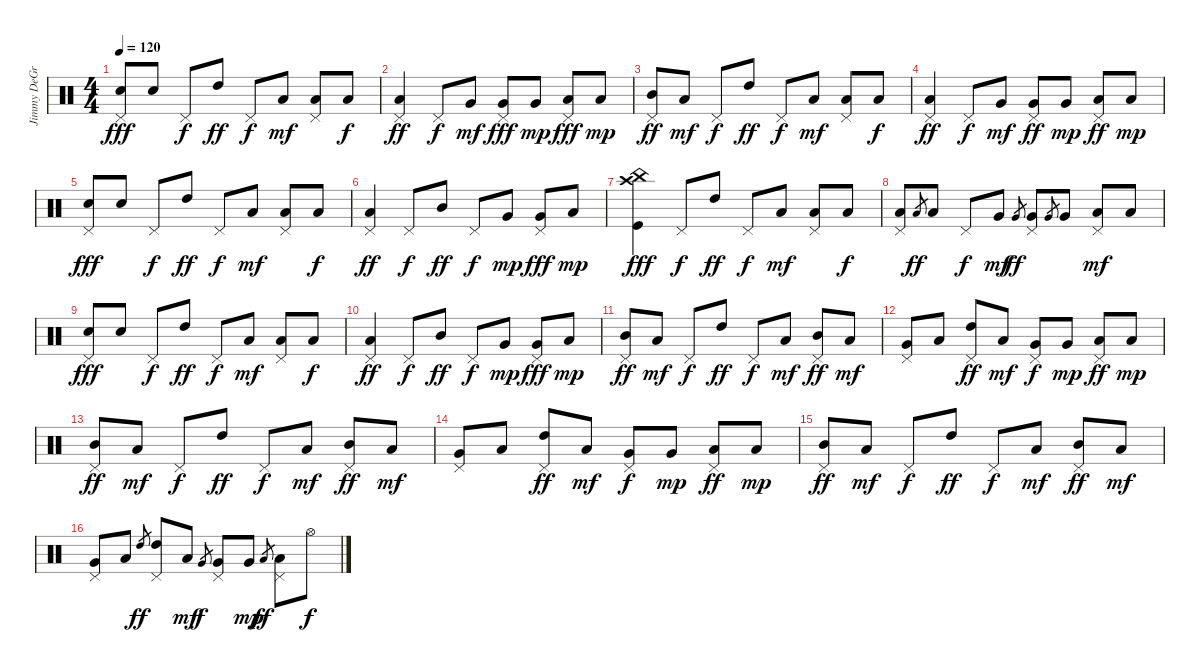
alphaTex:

\track ("Jimmy DeGrasso" "Jimmy DeGr") {instrument percussion}
\staff {score}
\articulation defaults
\ts (4 4)
\tempo 120
\clef neutral
\ks c
("Electric Snare (hit)" "Pedal Hi-Hat (hit)").8{dy fff} "Electric Snare (hit)".8 "Pedal Hi-Hat (hit)".8{dy f} "High Tom (hit)".8{dy ff} "Pedal Hi-Hat (hit)".8{dy f} "Low Floor Tom (hit)".8{dy mf} ("Low Floor Tom (hit)" "Pedal Hi-Hat (hit)").8 "Low Floor Tom (hit)".8{dy f} |
("Low Floor Tom (hit)" "Pedal Hi-Hat (hit)").4{dy ff} "Pedal Hi-Hat (hit)".8{dy f} "Very Low Tom (hit)".8{dy mf} ("Very Low Tom (hit)" "Pedal Hi-Hat (hit)").8{dy fff} "Very Low Tom (hit)".8{dy mp} ("Low Floor Tom (hit)" "Pedal Hi-Hat (hit)").8{dy fff} "Low Floor Tom (hit)".8{dy mp} |
("Mid Tom (hit)" "Pedal Hi-Hat (hit)").8{dy ff} "Low Floor Tom (hit)".8{dy mf} "Pedal Hi-Hat (hit)".8{dy f} "High Tom (hit)".8{dy ff} "Pedal Hi-Hat (hit)".8{dy f} "Low Floor Tom (hit)".8{dy mf} ("Low Floor Tom (hit)" "Pedal Hi-Hat (hit)").8 "Low Floor Tom (hit)".8{dy f} |
("Low Floor Tom (hit)" "Pedal Hi-Hat (hit)").4{dy ff} "Pedal Hi-Hat (hit)".8{dy f} "Very Low Tom (hit)".8{dy mf} ("Very Low Tom (hit)" "Pedal Hi-Hat (hit)").8{dy ff} "Very Low Tom (hit)".8{dy mp} ("Low Floor Tom (hit)" "Pedal Hi-Hat (hit)").8{dy ff} "Low Floor Tom (hit)".8{dy mp} |
("Electric Snare (hit)" "Pedal Hi-Hat (hit)").8{dy fff} "Electric Snare (hit)".8 "Pedal Hi-Hat (hit)".8{dy f} "High Tom (hit)".8{dy ff} "Pedal Hi-Hat (hit)".8{dy f} "Low Floor Tom (hit)".8{dy mf} ("Low Floor Tom (hit)" "Pedal Hi-Hat (hit)").8 "Low Floor Tom (hit)".8{dy f} |
("Low Floor Tom (hit)" "Pedal Hi-Hat (hit)").4{dy ff} "Pedal Hi-Hat (hit)".8{dy f} "Mid Tom (hit)".8{dy ff} "Pedal Hi-Hat (hit)".8{dy f} "Very Low Tom (hit)".8{dy mp} ("Very Low Tom (hit)" "Pedal Hi-Hat (hit)").8{dy fff} "Low Floor Tom (hit)".8{dy mp} |
("Kick (hit)" "China (hit)" "Crash high (hit)").4{dy fff} "Pedal Hi-Hat (hit)".8{dy f} "High Tom (hit)".8{dy ff} "Pedal Hi-Hat (hit)".8{dy f} "Low Floor Tom (hit)".8{dy mf} ("Low Floor Tom (hit)" "Pedal Hi-Hat (hit)").8 "Low Floor Tom (hit)".8{dy f} |
("Low Floor Tom (hit)" "Pedal Hi-Hat (hit)").8 "Low Tom (hit)".8{gr dy ff} "Low Tom (hit)".8 "Pedal Hi-Hat (hit)".8{dy f} "Very Low Tom (hit)".8{dy mf} "Very Low Tom (hit)".8{gr dy ff} ("Very Low Tom (hit)" "Pedal Hi-Hat (hit)").8 "Very Low Tom (hit)".8{gr} "Very Low Tom (hit)".8 ("Low Floor Tom (hit)" "Pedal Hi-Hat (hit)").8{dy mf} "Low Floor Tom (hit)".8 |
("Electric Snare (hit)" "Pedal Hi-Hat (hit)").8{dy fff} "Electric Snare (hit)".8 "Pedal Hi-Hat (hit)".8{dy f} "High Tom (hit)".8{dy ff} "Pedal Hi-Hat (hit)".8{dy f} "Low Floor Tom (hit)".8{dy mf} ("Low Floor Tom (hit)" "Pedal Hi-Hat (hit)").8 "Low Floor Tom (hit)".8{dy f} |
("Low Floor Tom (hit)" "Pedal Hi-Hat (hit)").4{dy ff} "Pedal Hi-Hat (hit)".8{dy f} "Mid Tom (hit)".8{dy ff} "Pedal Hi-Hat (hit)".8{dy f} "Very Low Tom (hit)".8{dy mp} ("Very Low Tom (hit)" "Pedal Hi-Hat (hit)").8{dy fff} "Low Floor Tom (hit)".8{dy mp} |
("Mid Tom (hit)" "Pedal Hi-Hat (hit)").8{dy ff} "Low Floor Tom (hit)".8{dy mf} "Pedal Hi-Hat (hit)".8{dy f} "High Tom (hit)".8{dy ff} "Pedal Hi-Hat (hit)".8{dy f} "Low Floor Tom (hit)".8{dy mf} ("Mid Tom (hit)" "Pedal Hi-Hat (hit)").8{dy ff} "Low Tom (hit)".8{dy mf} |
("Very Low Tom (hit)" "Pedal Hi-Hat (hit)").8 "Low Floor Tom (hit)".8 ("High Tom (hit)" "Pedal Hi-Hat (hit)").8{dy ff} "Low Floor Tom (hit)".8{dy mf} ("Very Low Tom (hit)" "Pedal Hi-Hat (hit)").8{dy f} "Very Low Tom (hit)".8{dy mp} ("Low Floor Tom (hit)" "Pedal Hi-Hat (hit)").8{dy ff} "Low Floor Tom (hit)".8{dy mp} |
("Mid Tom (hit)" "Pedal Hi-Hat (hit)").8{dy ff} "Low Floor Tom (hit)".8{dy mf} "Pedal Hi-Hat (hit)".8{dy f} "High Tom (hit)".8{dy ff} "Pedal Hi-Hat (hit)".8{dy f} "Low Floor Tom (hit)".8{dy mf} ("Mid Tom (hit)" "Pedal Hi-Hat (hit)").8{dy ff} "Low Tom (hit)".8{dy mf} |
("Very Low Tom (hit)" "Pedal Hi-Hat (hit)").8 "Low Floor Tom (hit)".8 ("High Tom (hit)" "Pedal Hi-Hat (hit)").8{dy ff} "Low Floor Tom (hit)".8{dy mf} ("Very Low Tom (hit)" "Pedal Hi-Hat (hit)").8{dy f} "Very Low Tom (hit)".8{dy mp} ("Low Floor Tom (hit)" "Pedal Hi-Hat (hit)").8{dy ff} "Low Floor Tom (hit)".8{dy mp} |
("Mid Tom (hit)" "Pedal Hi-Hat (hit)").8{dy ff} "Low Floor Tom (hit)".8{dy mf} "Pedal Hi-Hat (hit)".8{dy f} "High Tom (hit)".8{dy ff} "Pedal Hi-Hat (hit)".8{dy f} "Low Floor Tom (hit)".8{dy mf} ("Mid Tom (hit)" "Pedal Hi-Hat (hit)").8{dy ff} "Low Tom (hit)".8{dy mf} |
("Very Low Tom (hit)" "Pedal Hi-Hat (hit)").8 "Low Floor Tom (hit)".8 "High Tom (hit)".8{gr dy ff} ("High Tom (hit)" "Pedal Hi-Hat (hit)").8 "Low Floor Tom (hit)".8{dy mf} "Very Low Tom (hit)".8{gr dy f} ("Very Low Tom (hit)" "Pedal Hi-Hat (hit)").8 "Very Low Tom (hit)".8{dy mp} "Low Floor Tom (hit)".8{gr dy ff} ("Low Floor Tom (hit)" "Pedal Hi-Hat (hit)").8 "Hi-Hat (open)".8{dy f}
